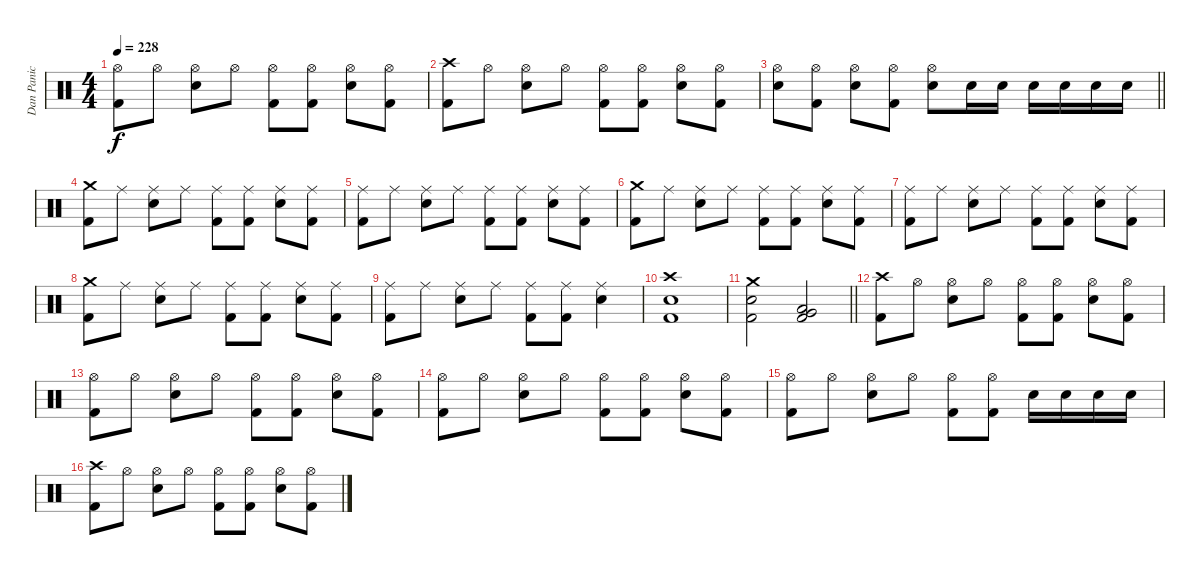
\track ("Dan Panic" "Dan Panic") {instrument percussion}
\staff {score}
\articulation defaults
\ts (4 4)
\tempo 228
\clef neutral
\ks c
("Hi-Hat (open)" "Kick (hit) 2").8{dy f} "Hi-Hat (open)".8 ("Hi-Hat (open)" "Electric Snare (hit)").8 "Hi-Hat (open)".8 ("Hi-Hat (open)" "Kick (hit) 2").8 ("Hi-Hat (open)" "Kick (hit) 2").8 ("Hi-Hat (open)" "Electric Snare (hit)").8 ("Hi-Hat (open)" "Kick (hit) 2").8 |
("Crash high (hit)" "Kick (hit) 2").8 "Hi-Hat (open)".8 ("Hi-Hat (open)" "Electric Snare (hit)").8 "Hi-Hat (open)".8 ("Hi-Hat (open)" "Kick (hit) 2").8 ("Hi-Hat (open)" "Kick (hit) 2").8 ("Hi-Hat (open)" "Electric Snare (hit)").8 ("Hi-Hat (open)" "Kick (hit) 2").8 |
\barLineRight lightlight
("Hi-Hat (open)" "Electric Snare (hit)").8 ("Hi-Hat (open)" "Kick (hit) 2").8 ("Hi-Hat (open)" "Electric Snare (hit)").8 ("Hi-Hat (open)" "Kick (hit) 2").8 ("Hi-Hat (open)" "Electric Snare (hit)").8 "Electric Snare (hit)".16 "Electric Snare (hit)".16 "Electric Snare (hit)".16 "Electric Snare (hit)".16 "Electric Snare (hit)".16 "Electric Snare (hit)".16 |
\section ("" "")
("Crash medium (hit)" "Kick (hit) 2").8 "Ride (middle)".8 ("Ride (middle)" "Electric Snare (hit)").8 "Ride (middle)".8 ("Ride (middle)" "Kick (hit) 2").8 ("Ride (middle)" "Kick (hit) 2").8 ("Ride (middle)" "Electric Snare (hit)").8 ("Ride (middle)" "Kick (hit) 2").8 |
("Ride (middle)" "Kick (hit) 2").8 "Ride (middle)".8 ("Ride (middle)" "Electric Snare (hit)").8 "Ride (middle)".8 ("Ride (middle)" "Kick (hit) 2").8 ("Ride (middle)" "Kick (hit) 2").8 ("Ride (middle)" "Electric Snare (hit)").8 ("Ride (middle)" "Kick (hit) 2").8 |
("Crash medium (hit)" "Kick (hit) 2").8 "Ride (middle)".8 ("Ride (middle)" "Electric Snare (hit)").8 "Ride (middle)".8 ("Ride (middle)" "Kick (hit) 2").8 ("Ride (middle)" "Kick (hit) 2").8 ("Ride (middle)" "Electric Snare (hit)").8 ("Ride (middle)" "Kick (hit) 2").8 |
("Ride (middle)" "Kick (hit) 2").8 "Ride (middle)".8 ("Ride (middle)" "Electric Snare (hit)").8 "Ride (middle)".8 ("Ride (middle)" "Kick (hit) 2").8 ("Ride (middle)" "Kick (hit) 2").8 ("Ride (middle)" "Electric Snare (hit)").8 ("Ride (middle)" "Kick (hit) 2").8 |
("Crash medium (hit)" "Kick (hit) 2").8 "Ride (middle)".8 ("Ride (middle)" "Electric Snare (hit)").8 "Ride (middle)".8 ("Ride (middle)" "Kick (hit) 2").8 ("Ride (middle)" "Kick (hit) 2").8 ("Ride (middle)" "Electric Snare (hit)").8 ("Ride (middle)" "Kick (hit) 2").8 |
("Ride (middle)" "Kick (hit) 2").8 "Ride (middle)".8 ("Ride (middle)" "Electric Snare (hit)").8 "Ride (middle)".8 ("Ride (middle)" "Kick (hit) 2").8 ("Ride (middle)" "Kick (hit) 2").8 ("Ride (middle)" "Electric Snare (hit)").4 |
("Crash high (hit)" "Electric Snare (hit)" "Kick (hit) 2").1 |
\barLineRight lightlight
("Crash medium (hit)" "Electric Snare (hit)" "Kick (hit) 2").2 ("Very Low Tom (hit)" "Low Floor Tom (hit)" "Kick (hit) 2").2 |
\section ("" "")
("Crash high (hit)" "Kick (hit) 2").8 "Hi-Hat (open)".8 ("Hi-Hat (open)" "Electric Snare (hit)").8 "Hi-Hat (open)".8 ("Hi-Hat (open)" "Kick (hit) 2").8 ("Hi-Hat (open)" "Kick (hit) 2").8 ("Hi-Hat (open)" "Electric Snare (hit)").8 ("Hi-Hat (open)" "Kick (hit) 2").8 |
("Hi-Hat (open)" "Kick (hit) 2").8 "Hi-Hat (open)".8 ("Hi-Hat (open)" "Electric Snare (hit)").8 "Hi-Hat (open)".8 ("Hi-Hat (open)" "Kick (hit) 2").8 ("Hi-Hat (open)" "Kick (hit) 2").8 ("Hi-Hat (open)" "Electric Snare (hit)").8 ("Hi-Hat (open)" "Kick (hit) 2").8 |
("Hi-Hat (open)" "Kick (hit) 2").8 "Hi-Hat (open)".8 ("Hi-Hat (open)" "Electric Snare (hit)").8 "Hi-Hat (open)".8 ("Hi-Hat (open)" "Kick (hit) 2").8 ("Hi-Hat (open)" "Kick (hit) 2").8 ("Hi-Hat (open)" "Electric Snare (hit)").8 ("Hi-Hat (open)" "Kick (hit) 2").8 |
("Hi-Hat (open)" "Kick (hit) 2").8 "Hi-Hat (open)".8 ("Hi-Hat (open)" "Electric Snare (hit)").8 "Hi-Hat (open)".8 ("Hi-Hat (open)" "Kick (hit) 2").8 ("Hi-Hat (open)" "Kick (hit) 2").8 "Electric Snare (hit)".16 "Electric Snare (hit)".16 "Electric Snare (hit)".16 "Electric Snare (hit)".16 |
("Crash high (hit)" "Kick (hit) 2").8 "Hi-Hat (open)".8 ("Hi-Hat (open)" "Electric Snare (hit)").8 "Hi-Hat (open)".8 ("Hi-Hat (open)" "Kick (hit) 2").8 ("Hi-Hat (open)" "Kick (hit) 2").8 ("Hi-Hat (open)" "Electric Snare (hit)").8 ("Hi-Hat (open)" "Kick (hit) 2").8
